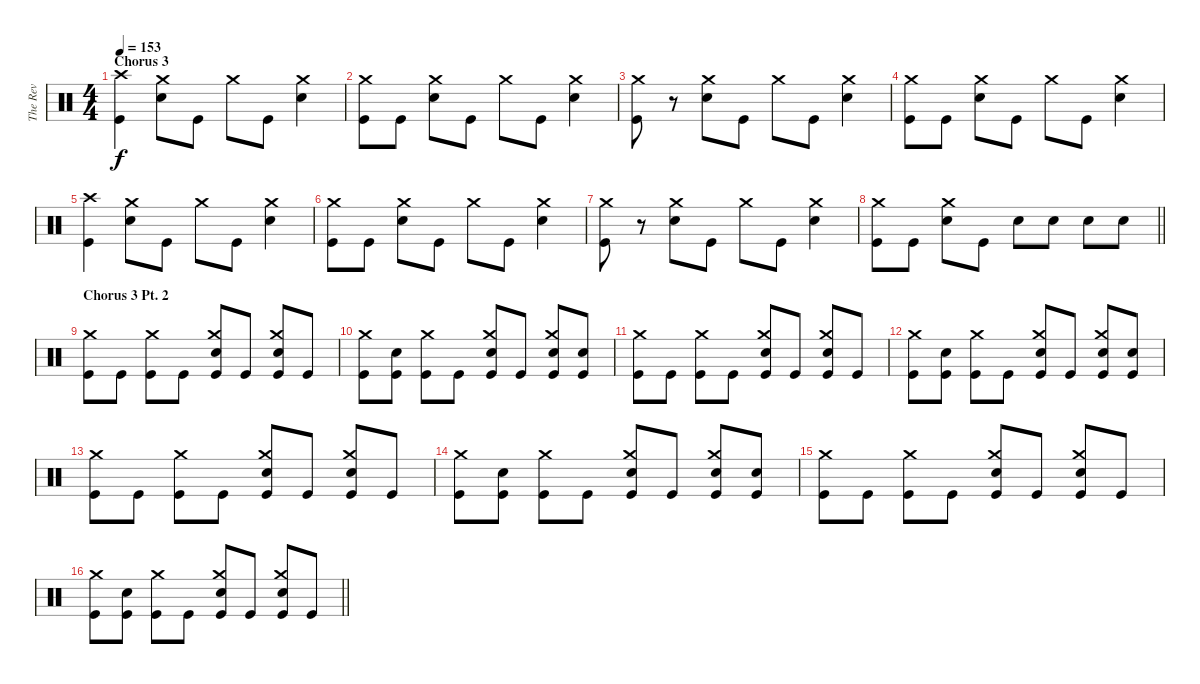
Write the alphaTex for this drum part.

\track ("The Rev" "The Rev") {instrument percussion}
\staff {score}
\articulation defaults
\ts (4 4)
\section ("" "Chorus 3")
\tempo 153
\clef neutral
\ks c
("Crash high (hit)" "Kick (hit)").4{dy f} ("Crash medium (hit)" "Electric Snare (hit)").8 "Kick (hit)".8 "Crash medium (hit)".8 "Kick (hit)".8 ("Crash medium (hit)" "Electric Snare (hit)").4 |
("Crash medium (hit)" "Kick (hit)").8 "Kick (hit)".8 ("Crash medium (hit)" "Electric Snare (hit)").8 "Kick (hit)".8 "Crash medium (hit)".8 "Kick (hit)".8 ("Crash medium (hit)" "Electric Snare (hit)").4 |
("Crash medium (hit)" "Kick (hit)").8 r.8 ("Crash medium (hit)" "Electric Snare (hit)").8 "Kick (hit)".8 "Crash medium (hit)".8 "Kick (hit)".8 ("Crash medium (hit)" "Electric Snare (hit)").4 |
("Crash medium (hit)" "Kick (hit)").8 "Kick (hit)".8 ("Crash medium (hit)" "Electric Snare (hit)").8 "Kick (hit)".8 "Crash medium (hit)".8 "Kick (hit)".8 ("Crash medium (hit)" "Electric Snare (hit)").4 |
("Crash high (hit)" "Kick (hit)").4 ("Crash medium (hit)" "Electric Snare (hit)").8 "Kick (hit)".8 "Crash medium (hit)".8 "Kick (hit)".8 ("Crash medium (hit)" "Electric Snare (hit)").4 |
("Crash medium (hit)" "Kick (hit)").8 "Kick (hit)".8 ("Crash medium (hit)" "Electric Snare (hit)").8 "Kick (hit)".8 "Crash medium (hit)".8 "Kick (hit)".8 ("Crash medium (hit)" "Electric Snare (hit)").4 |
("Crash medium (hit)" "Kick (hit)").8 r.8 ("Crash medium (hit)" "Electric Snare (hit)").8 "Kick (hit)".8 "Crash medium (hit)".8 "Kick (hit)".8 ("Crash medium (hit)" "Electric Snare (hit)").4 |
\barLineRight lightlight
("Crash medium (hit)" "Kick (hit)").8 "Kick (hit)".8 ("Crash medium (hit)" "Electric Snare (hit)").8 "Kick (hit)".8 "Electric Snare (hit)".8 "Electric Snare (hit)".8 "Electric Snare (hit)".8 "Electric Snare (hit)".8 |
\section ("" "Chorus 3 Pt. 2")
("Crash medium (hit)" "Kick (hit)").8 "Kick (hit)".8 ("Crash medium (hit)" "Kick (hit)").8 "Kick (hit)".8 ("Crash medium (hit)" "Electric Snare (hit)" "Kick (hit)").8 "Kick (hit)".8 ("Crash medium (hit)" "Electric Snare (hit)" "Kick (hit)").8 "Kick (hit)".8 |
("Crash medium (hit)" "Kick (hit)").8 ("Electric Snare (hit)" "Kick (hit)").8 ("Crash medium (hit)" "Kick (hit)").8 "Kick (hit)".8 ("Crash medium (hit)" "Electric Snare (hit)" "Kick (hit)").8 "Kick (hit)".8 ("Crash medium (hit)" "Electric Snare (hit)" "Kick (hit)").8 ("Electric Snare (hit)" "Kick (hit)").8 |
("Crash medium (hit)" "Kick (hit)").8 "Kick (hit)".8 ("Crash medium (hit)" "Kick (hit)").8 "Kick (hit)".8 ("Crash medium (hit)" "Electric Snare (hit)" "Kick (hit)").8 "Kick (hit)".8 ("Crash medium (hit)" "Electric Snare (hit)" "Kick (hit)").8 "Kick (hit)".8 |
("Crash medium (hit)" "Kick (hit)").8 ("Electric Snare (hit)" "Kick (hit)").8 ("Crash medium (hit)" "Kick (hit)").8 "Kick (hit)".8 ("Crash medium (hit)" "Electric Snare (hit)" "Kick (hit)").8 "Kick (hit)".8 ("Crash medium (hit)" "Electric Snare (hit)" "Kick (hit)").8 ("Electric Snare (hit)" "Kick (hit)").8 |
("Crash medium (hit)" "Kick (hit)").8 "Kick (hit)".8 ("Crash medium (hit)" "Kick (hit)").8 "Kick (hit)".8 ("Crash medium (hit)" "Electric Snare (hit)" "Kick (hit)").8 "Kick (hit)".8 ("Crash medium (hit)" "Electric Snare (hit)" "Kick (hit)").8 "Kick (hit)".8 |
("Crash medium (hit)" "Kick (hit)").8 ("Electric Snare (hit)" "Kick (hit)").8 ("Crash medium (hit)" "Kick (hit)").8 "Kick (hit)".8 ("Crash medium (hit)" "Electric Snare (hit)" "Kick (hit)").8 "Kick (hit)".8 ("Crash medium (hit)" "Electric Snare (hit)" "Kick (hit)").8 ("Electric Snare (hit)" "Kick (hit)").8 |
("Crash medium (hit)" "Kick (hit)").8 "Kick (hit)".8 ("Crash medium (hit)" "Kick (hit)").8 "Kick (hit)".8 ("Crash medium (hit)" "Electric Snare (hit)" "Kick (hit)").8 "Kick (hit)".8 ("Crash medium (hit)" "Electric Snare (hit)" "Kick (hit)").8 "Kick (hit)".8 |
\barLineRight lightlight
("Crash medium (hit)" "Kick (hit)").8 ("Electric Snare (hit)" "Kick (hit)").8 ("Crash medium (hit)" "Kick (hit)").8 "Kick (hit)".8 ("Crash medium (hit)" "Electric Snare (hit)" "Kick (hit)").8 "Kick (hit)".8 ("Crash medium (hit)" "Electric Snare (hit)" "Kick (hit)").8 "Kick (hit)".8
